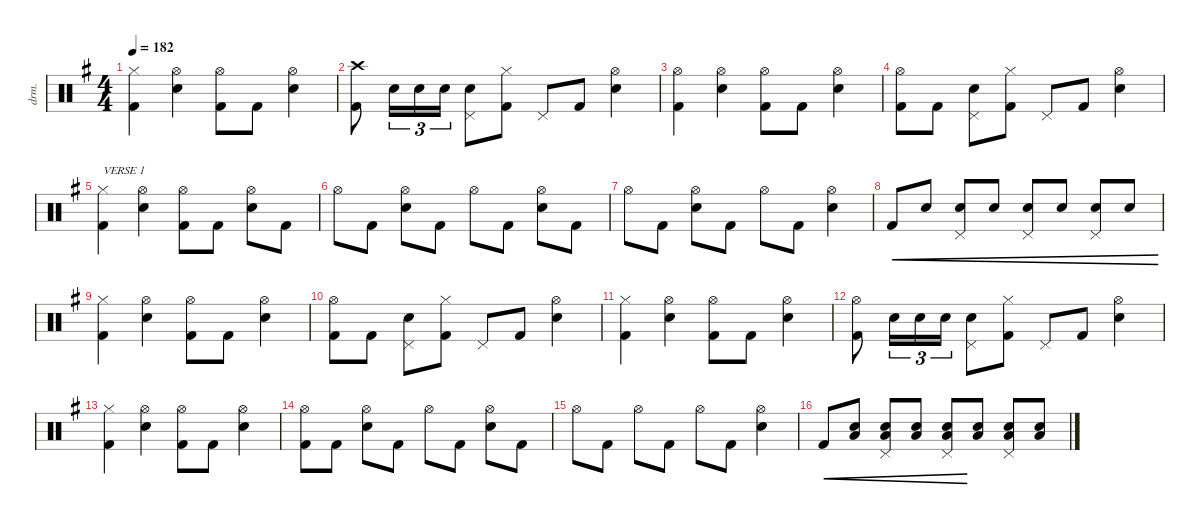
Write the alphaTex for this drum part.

\defaultSystemsLayout 4
\hideDynamics
\bracketExtendMode nobrackets
\otherSystemsTrackNameOrientation horizontal
\track ("Drum" "drm.") {defaultSystemsLayout 4 instrument percussion}
\staff {score}
\articulation defaults
\ts (4 4)
\tempo 182
\clef neutral
\ks g
("Kick (hit) 2"{acc forcenatural} "Hi-Hat (closed)"{acc forcenatural}).4{dy f beam Down} ("Snare (hit) 2"{acc forcenatural} "Hi-Hat (open)"{acc forcenatural}).4{beam Down} ("Kick (hit) 2"{acc forcenatural} "Hi-Hat (open)"{acc forcenatural}).8{beam Down} "Kick (hit) 2"{acc forcenatural}.8{beam Down} ("Snare (hit) 2"{acc forcenatural} "Hi-Hat (open)"{acc forcenatural}).4{beam Down} |
("Kick (hit) 2"{acc forcenatural} "Crash high (hit)"{acc forcenatural}).8{beam Down} "Snare (hit) 2"{acc forcenatural}.16{tu (3 2) beam Down} "Snare (hit) 2"{acc forcenatural}.16{tu (3 2) beam Down} "Snare (hit) 2"{acc forcenatural}.16{tu (3 2) beam Down} ("Snare (hit) 2"{acc forcenatural} "Pedal Hi-Hat (hit)"{acc forcenatural}).8{beam Down} ("Kick (hit) 2"{acc forcenatural} "Hi-Hat (closed)"{acc forcenatural}).8{beam Down} "Pedal Hi-Hat (hit)"{acc forcenatural}.8{beam Up} "Kick (hit) 2"{acc forcenatural}.8{beam Up} ("Snare (hit) 2"{acc forcenatural} "Hi-Hat (open)"{acc forcenatural}).4{beam Down} |
("Kick (hit) 2"{acc forcenatural} "Hi-Hat (open)"{acc forcenatural}).4{beam Down} ("Snare (hit) 2"{acc forcenatural} "Hi-Hat (open)"{acc forcenatural}).4{beam Down} ("Kick (hit) 2"{acc forcenatural} "Hi-Hat (open)"{acc forcenatural}).8{beam Down} "Kick (hit) 2"{acc forcenatural}.8{beam Down} ("Snare (hit) 2"{acc forcenatural} "Hi-Hat (open)"{acc forcenatural}).4{beam Down} |
("Kick (hit) 2"{acc forcenatural} "Hi-Hat (open)"{acc forcenatural}).8{beam Down} "Kick (hit) 2"{acc forcenatural}.8{beam Down} ("Snare (hit) 2"{acc forcenatural} "Pedal Hi-Hat (hit)"{acc forcenatural}).8{beam Down} ("Kick (hit) 2"{acc forcenatural} "Hi-Hat (closed)"{acc forcenatural}).8{beam Down} "Pedal Hi-Hat (hit)"{acc forcenatural}.8{beam Up} "Kick (hit) 2"{acc forcenatural}.8{beam Up} ("Snare (hit) 2"{acc forcenatural} "Hi-Hat (open)"{acc forcenatural}).4{beam Down} |
("Kick (hit) 2"{acc forcenatural} "Hi-Hat (closed)"{acc forcenatural}).4{txt "VERSE 1" beam Down} ("Snare (hit) 2"{acc forcenatural} "Hi-Hat (open)"{acc forcenatural}).4{beam Down} ("Kick (hit) 2"{acc forcenatural} "Hi-Hat (open)"{acc forcenatural}).8{beam Down} "Kick (hit) 2"{acc forcenatural}.8{beam Down} ("Snare (hit) 2"{acc forcenatural} "Hi-Hat (open)"{acc forcenatural}).8{beam Down} "Kick (hit) 2"{acc forcenatural}.8{beam Down} |
"Hi-Hat (open)"{acc forcenatural}.8{beam Down} "Kick (hit) 2"{acc forcenatural}.8{beam Down} ("Snare (hit) 2"{acc forcenatural} "Hi-Hat (open)"{acc forcenatural}).8{beam Down} "Kick (hit) 2"{acc forcenatural}.8{beam Down} "Hi-Hat (open)"{acc forcenatural}.8{beam Down} "Kick (hit) 2"{acc forcenatural}.8{beam Down} ("Snare (hit) 2"{acc forcenatural} "Hi-Hat (open)"{acc forcenatural}).8{beam Down} "Kick (hit) 2"{acc forcenatural}.8{beam Down} |
"Hi-Hat (open)"{acc forcenatural}.8{beam Down} "Kick (hit) 2"{acc forcenatural}.8{beam Down} ("Snare (hit) 2"{acc forcenatural} "Hi-Hat (open)"{acc forcenatural}).8{beam Down} "Kick (hit) 2"{acc forcenatural}.8{beam Down} "Hi-Hat (open)"{acc forcenatural}.8{beam Down} "Kick (hit) 2"{acc forcenatural}.8{beam Down} ("Snare (hit) 2"{acc forcenatural} "Hi-Hat (open)"{acc forcenatural}).4{beam Down} |
"Kick (hit) 2"{acc forcenatural}.8{cre beam Up} "Snare (hit) 2"{acc forcenatural}.8{cre beam Up} ("Snare (hit) 2"{acc forcenatural} "Pedal Hi-Hat (hit)"{acc forcenatural}).8{cre beam Up} "Snare (hit) 2"{acc forcenatural}.8{cre beam Up} ("Snare (hit) 2"{acc forcenatural} "Pedal Hi-Hat (hit)"{acc forcenatural}).8{cre beam Up} "Snare (hit) 2"{acc forcenatural}.8{cre beam Up} ("Snare (hit) 2"{acc forcenatural} "Pedal Hi-Hat (hit)"{acc forcenatural}).8{cre beam Up} "Snare (hit) 2"{acc forcenatural}.8{cre beam Up} |
("Kick (hit) 2"{acc forcenatural} "Hi-Hat (closed)"{acc forcenatural}).4{beam Down} ("Snare (hit) 2"{acc forcenatural} "Hi-Hat (open)"{acc forcenatural}).4{beam Down} ("Kick (hit) 2"{acc forcenatural} "Hi-Hat (open)"{acc forcenatural}).8{beam Down} "Kick (hit) 2"{acc forcenatural}.8{beam Down} ("Snare (hit) 2"{acc forcenatural} "Hi-Hat (open)"{acc forcenatural}).4{beam Down} |
("Kick (hit) 2"{acc forcenatural} "Hi-Hat (open)"{acc forcenatural}).8{beam Down} "Kick (hit) 2"{acc forcenatural}.8{beam Down} ("Snare (hit) 2"{acc forcenatural} "Pedal Hi-Hat (hit)"{acc forcenatural}).8{beam Down} ("Kick (hit) 2"{acc forcenatural} "Hi-Hat (closed)"{acc forcenatural}).8{beam Down} "Pedal Hi-Hat (hit)"{acc forcenatural}.8{beam Up} "Kick (hit) 2"{acc forcenatural}.8{beam Up} ("Snare (hit) 2"{acc forcenatural} "Hi-Hat (open)"{acc forcenatural}).4{beam Down} |
("Kick (hit) 2"{acc forcenatural} "Hi-Hat (closed)"{acc forcenatural}).4{beam Down} ("Snare (hit) 2"{acc forcenatural} "Hi-Hat (open)"{acc forcenatural}).4{beam Down} ("Kick (hit) 2"{acc forcenatural} "Hi-Hat (open)"{acc forcenatural}).8{beam Down} "Kick (hit) 2"{acc forcenatural}.8{beam Down} ("Snare (hit) 2"{acc forcenatural} "Hi-Hat (open)"{acc forcenatural}).4{beam Down} |
("Kick (hit) 2"{acc forcenatural} "Hi-Hat (open)"{acc forcenatural}).8{beam Down} "Snare (hit) 2"{acc forcenatural}.16{tu (3 2) beam Down} "Snare (hit) 2"{acc forcenatural}.16{tu (3 2) beam Down} "Snare (hit) 2"{acc forcenatural}.16{tu (3 2) beam Down} ("Snare (hit) 2"{acc forcenatural} "Pedal Hi-Hat (hit)"{acc forcenatural}).8{beam Down} ("Kick (hit) 2"{acc forcenatural} "Hi-Hat (closed)"{acc forcenatural}).8{beam Down} "Pedal Hi-Hat (hit)"{acc forcenatural}.8{beam Up} "Kick (hit) 2"{acc forcenatural}.8{beam Up} ("Snare (hit) 2"{acc forcenatural} "Hi-Hat (open)"{acc forcenatural}).4{beam Down} |
("Kick (hit) 2"{acc forcenatural} "Hi-Hat (closed)"{acc forcenatural}).4{beam Down} ("Snare (hit) 2"{acc forcenatural} "Hi-Hat (open)"{acc forcenatural}).4{beam Down} ("Kick (hit) 2"{acc forcenatural} "Hi-Hat (open)"{acc forcenatural}).8{beam Down} "Kick (hit) 2"{acc forcenatural}.8{beam Down} ("Snare (hit) 2"{acc forcenatural} "Hi-Hat (open)"{acc forcenatural}).4{beam Down} |
("Kick (hit) 2"{acc forcenatural} "Hi-Hat (open)"{acc forcenatural}).8{beam Down} "Kick (hit) 2"{acc forcenatural}.8{beam Down} ("Snare (hit) 2"{acc forcenatural} "Hi-Hat (open)"{acc forcenatural}).8{beam Down} "Kick (hit) 2"{acc forcenatural}.8{beam Down} "Hi-Hat (open)"{acc forcenatural}.8{beam Down} "Kick (hit) 2"{acc forcenatural}.8{beam Down} ("Snare (hit) 2"{acc forcenatural} "Hi-Hat (open)"{acc forcenatural}).8{beam Down} "Kick (hit) 2"{acc forcenatural}.8{beam Down} |
"Hi-Hat (open)"{acc forcenatural}.8{beam Down} "Kick (hit) 2"{acc forcenatural}.8{beam Down} "Hi-Hat (open)"{acc forcenatural}.8{beam Down} "Kick (hit) 2"{acc forcenatural}.8{beam Down} "Hi-Hat (open)"{acc forcenatural}.8{beam Down} "Kick (hit) 2"{acc forcenatural}.8{beam Down} ("Snare (hit) 2"{acc forcenatural} "Hi-Hat (open)"{acc forcenatural}).4{beam Down} |
"Kick (hit) 2"{acc forcenatural}.8{cre beam Up} ("Snare (hit) 2"{acc forcenatural} "Low Tom (hit)"{acc forcenatural}).8{cre beam Up} ("Low Tom (hit)"{acc forcenatural} "Snare (hit) 2"{acc forcenatural} "Pedal Hi-Hat (hit)"{acc forcenatural}).8{cre beam Up} ("Snare (hit) 2"{acc forcenatural} "Low Tom (hit)"{acc forcenatural}).8{cre beam Up} ("Low Tom (hit)"{acc forcenatural} "Snare (hit) 2"{acc forcenatural} "Pedal Hi-Hat (hit)"{acc forcenatural}).8{cre beam Up} ("Low Tom (hit)"{acc forcenatural} "Snare (hit) 2"{acc forcenatural}).8{beam Up} ("Snare (hit) 2"{acc forcenatural} "Pedal Hi-Hat (hit)"{acc forcenatural} "Low Tom (hit)"{acc forcenatural}).8{beam Up} ("Low Tom (hit)"{acc forcenatural} "Snare (hit) 2"{acc forcenatural}).8{beam Up}
